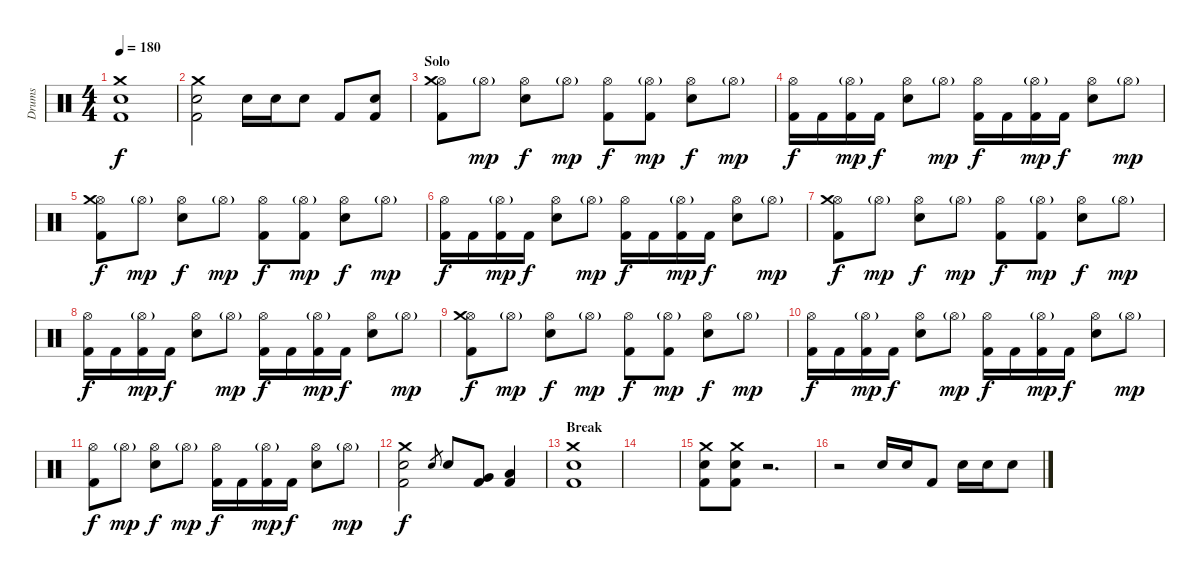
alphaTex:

\track ("Drums" "Drums") {instrument percussion}
\staff {score}
\articulation defaults
\ts (4 4)
\tempo 180
\clef neutral
\ks c
("Crash medium (hit)" "Electric Snare (hit)" "Kick (hit) 2").1{dy f} |
("Crash medium (hit)" "Electric Snare (hit)" "Kick (hit) 2").2 "Electric Snare (hit)".16 "Electric Snare (hit)".16 "Electric Snare (hit)".8 "Kick (hit) 2".8 ("Electric Snare (hit)" "Kick (hit) 2").8 |
\section ("" "Solo")
("Hi-Hat (open)" "Crash medium (hit)" "Kick (hit) 2").8 "Hi-Hat (open)"{g}.8{dy mp} ("Hi-Hat (open)" "Electric Snare (hit)").8{dy f} "Hi-Hat (open)"{g}.8{dy mp} ("Hi-Hat (open)" "Kick (hit) 2").8{dy f} ("Hi-Hat (open)"{g} "Kick (hit) 2").8{dy mp} ("Hi-Hat (open)" "Electric Snare (hit)").8{dy f} "Hi-Hat (open)"{g}.8{dy mp} |
("Hi-Hat (open)" "Kick (hit) 2").16{dy f} "Kick (hit) 2".16 ("Hi-Hat (open)"{g} "Kick (hit) 2").16{dy mp} "Kick (hit) 2".16{dy f} ("Hi-Hat (open)" "Electric Snare (hit)").8 "Hi-Hat (open)"{g}.8{dy mp} ("Hi-Hat (open)" "Kick (hit) 2").16{dy f} "Kick (hit) 2".16 ("Hi-Hat (open)"{g} "Kick (hit) 2").16{dy mp} "Kick (hit) 2".16{dy f} ("Hi-Hat (open)" "Electric Snare (hit)").8 "Hi-Hat (open)"{g}.8{dy mp} |
("Hi-Hat (open)" "Crash medium (hit)" "Kick (hit) 2").8{dy f} "Hi-Hat (open)"{g}.8{dy mp} ("Hi-Hat (open)" "Electric Snare (hit)").8{dy f} "Hi-Hat (open)"{g}.8{dy mp} ("Hi-Hat (open)" "Kick (hit) 2").8{dy f} ("Hi-Hat (open)"{g} "Kick (hit) 2").8{dy mp} ("Hi-Hat (open)" "Electric Snare (hit)").8{dy f} "Hi-Hat (open)"{g}.8{dy mp} |
("Hi-Hat (open)" "Kick (hit) 2").16{dy f} "Kick (hit) 2".16 ("Hi-Hat (open)"{g} "Kick (hit) 2").16{dy mp} "Kick (hit) 2".16{dy f} ("Hi-Hat (open)" "Electric Snare (hit)").8 "Hi-Hat (open)"{g}.8{dy mp} ("Hi-Hat (open)" "Kick (hit) 2").16{dy f} "Kick (hit) 2".16 ("Hi-Hat (open)"{g} "Kick (hit) 2").16{dy mp} "Kick (hit) 2".16{dy f} ("Hi-Hat (open)" "Electric Snare (hit)").8 "Hi-Hat (open)"{g}.8{dy mp} |
("Hi-Hat (open)" "Crash medium (hit)" "Kick (hit) 2").8{dy f} "Hi-Hat (open)"{g}.8{dy mp} ("Hi-Hat (open)" "Electric Snare (hit)").8{dy f} "Hi-Hat (open)"{g}.8{dy mp} ("Hi-Hat (open)" "Kick (hit) 2").8{dy f} ("Hi-Hat (open)"{g} "Kick (hit) 2").8{dy mp} ("Hi-Hat (open)" "Electric Snare (hit)").8{dy f} "Hi-Hat (open)"{g}.8{dy mp} |
("Hi-Hat (open)" "Kick (hit) 2").16{dy f} "Kick (hit) 2".16 ("Hi-Hat (open)"{g} "Kick (hit) 2").16{dy mp} "Kick (hit) 2".16{dy f} ("Hi-Hat (open)" "Electric Snare (hit)").8 "Hi-Hat (open)"{g}.8{dy mp} ("Hi-Hat (open)" "Kick (hit) 2").16{dy f} "Kick (hit) 2".16 ("Hi-Hat (open)"{g} "Kick (hit) 2").16{dy mp} "Kick (hit) 2".16{dy f} ("Hi-Hat (open)" "Electric Snare (hit)").8 "Hi-Hat (open)"{g}.8{dy mp} |
("Hi-Hat (open)" "Crash medium (hit)" "Kick (hit) 2").8{dy f} "Hi-Hat (open)"{g}.8{dy mp} ("Hi-Hat (open)" "Electric Snare (hit)").8{dy f} "Hi-Hat (open)"{g}.8{dy mp} ("Hi-Hat (open)" "Kick (hit) 2").8{dy f} ("Hi-Hat (open)"{g} "Kick (hit) 2").8{dy mp} ("Hi-Hat (open)" "Electric Snare (hit)").8{dy f} "Hi-Hat (open)"{g}.8{dy mp} |
("Hi-Hat (open)" "Kick (hit) 2").16{dy f} "Kick (hit) 2".16 ("Hi-Hat (open)"{g} "Kick (hit) 2").16{dy mp} "Kick (hit) 2".16{dy f} ("Hi-Hat (open)" "Electric Snare (hit)").8 "Hi-Hat (open)"{g}.8{dy mp} ("Hi-Hat (open)" "Kick (hit) 2").16{dy f} "Kick (hit) 2".16 ("Hi-Hat (open)"{g} "Kick (hit) 2").16{dy mp} "Kick (hit) 2".16{dy f} ("Hi-Hat (open)" "Electric Snare (hit)").8 "Hi-Hat (open)"{g}.8{dy mp} |
("Hi-Hat (open)" "Kick (hit) 2").8{dy f} "Hi-Hat (open)"{g}.8{dy mp} ("Hi-Hat (open)" "Electric Snare (hit)").8{dy f} "Hi-Hat (open)"{g}.8{dy mp} ("Hi-Hat (open)" "Kick (hit) 2").16{dy f} "Kick (hit) 2".16 ("Hi-Hat (open)"{g} "Kick (hit) 2").16{dy mp} "Kick (hit) 2".16{dy f} ("Hi-Hat (open)" "Electric Snare (hit)").8 "Hi-Hat (open)"{g}.8{dy mp} |
("Crash medium (hit)" "Electric Snare (hit)" "Kick (hit) 2").2{dy f} "Electric Snare (hit)".8{gr} "Electric Snare (hit)".8 ("Very Low Tom (hit)" "Kick (hit) 2").8 ("Low Floor Tom (hit)" "Kick (hit) 2").4 |
\section ("" "Break")
("Crash medium (hit)" "Electric Snare (hit)" "Kick (hit) 2").1 |
|
("Crash medium (hit)" "Electric Snare (hit)" "Kick (hit) 2").8 ("Crash medium (hit)" "Electric Snare (hit)" "Kick (hit) 2").8 r.2{d} |
r.2 "Electric Snare (hit)".16 "Electric Snare (hit)".16 "Kick (hit) 2".8 "Electric Snare (hit)".16 "Electric Snare (hit)".16 "Electric Snare (hit)".8
